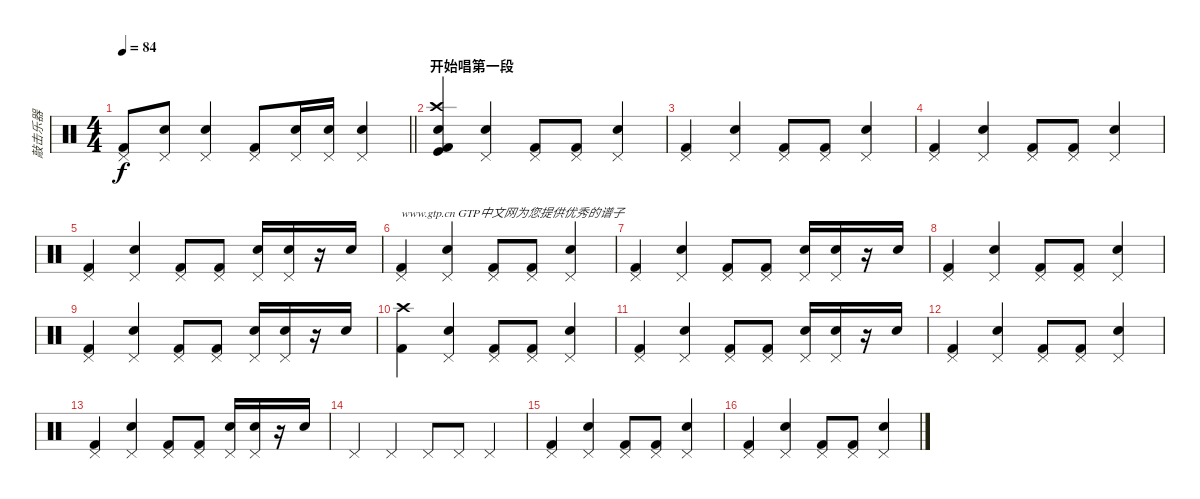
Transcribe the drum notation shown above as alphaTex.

\track ("敲击乐器" "敲击乐器") {instrument percussion}
\staff {score}
\articulation defaults
\ts (4 4)
\tempo 84
\clef neutral
\barLineRight lightlight
\ks c
("Kick (hit) 2" "Pedal Hi-Hat (hit)").8{dy f} ("Snare (hit) 2" "Pedal Hi-Hat (hit)").8 ("Snare (hit) 2" "Pedal Hi-Hat (hit)").4 ("Kick (hit) 2" "Pedal Hi-Hat (hit)").8 ("Snare (hit) 2" "Pedal Hi-Hat (hit)").16 ("Snare (hit) 2" "Pedal Hi-Hat (hit)").16 ("Snare (hit) 2" "Pedal Hi-Hat (hit)").4 |
\section ("" "开始唱第一段")
("Kick (hit) 2" "Crash high (hit)" "Kick (hit)" "Metronome (bell)").4 ("Snare (hit) 2" "Pedal Hi-Hat (hit)").4 ("Kick (hit) 2" "Pedal Hi-Hat (hit)").8 ("Kick (hit) 2" "Pedal Hi-Hat (hit)").8 ("Snare (hit) 2" "Pedal Hi-Hat (hit)").4 |
("Kick (hit) 2" "Pedal Hi-Hat (hit)").4 ("Snare (hit) 2" "Pedal Hi-Hat (hit)").4 ("Kick (hit) 2" "Pedal Hi-Hat (hit)").8 ("Kick (hit) 2" "Pedal Hi-Hat (hit)").8 ("Snare (hit) 2" "Pedal Hi-Hat (hit)").4 |
("Kick (hit) 2" "Pedal Hi-Hat (hit)").4 ("Snare (hit) 2" "Pedal Hi-Hat (hit)").4 ("Kick (hit) 2" "Pedal Hi-Hat (hit)").8 ("Kick (hit) 2" "Pedal Hi-Hat (hit)").8 ("Snare (hit) 2" "Pedal Hi-Hat (hit)").4 |
("Kick (hit) 2" "Pedal Hi-Hat (hit)").4 ("Snare (hit) 2" "Pedal Hi-Hat (hit)").4 ("Kick (hit) 2" "Pedal Hi-Hat (hit)").8 ("Kick (hit) 2" "Pedal Hi-Hat (hit)").8 ("Snare (hit) 2" "Pedal Hi-Hat (hit)").16 ("Snare (hit) 2" "Pedal Hi-Hat (hit)").16 r.16 "Snare (hit) 2".16 |
("Kick (hit) 2" "Pedal Hi-Hat (hit)").4{txt "www.gtp.cn GTP中文网为您提供优秀的谱子"} ("Snare (hit) 2" "Pedal Hi-Hat (hit)").4 ("Kick (hit) 2" "Pedal Hi-Hat (hit)").8 ("Kick (hit) 2" "Pedal Hi-Hat (hit)").8 ("Snare (hit) 2" "Pedal Hi-Hat (hit)").4 |
("Kick (hit) 2" "Pedal Hi-Hat (hit)").4 ("Snare (hit) 2" "Pedal Hi-Hat (hit)").4 ("Kick (hit) 2" "Pedal Hi-Hat (hit)").8 ("Kick (hit) 2" "Pedal Hi-Hat (hit)").8 ("Snare (hit) 2" "Pedal Hi-Hat (hit)").16 ("Snare (hit) 2" "Pedal Hi-Hat (hit)").16 r.16 "Snare (hit) 2".16 |
("Kick (hit) 2" "Pedal Hi-Hat (hit)").4 ("Snare (hit) 2" "Pedal Hi-Hat (hit)").4 ("Kick (hit) 2" "Pedal Hi-Hat (hit)").8 ("Kick (hit) 2" "Pedal Hi-Hat (hit)").8 ("Snare (hit) 2" "Pedal Hi-Hat (hit)").4 |
("Kick (hit) 2" "Pedal Hi-Hat (hit)").4 ("Snare (hit) 2" "Pedal Hi-Hat (hit)").4 ("Kick (hit) 2" "Pedal Hi-Hat (hit)").8 ("Kick (hit) 2" "Pedal Hi-Hat (hit)").8 ("Snare (hit) 2" "Pedal Hi-Hat (hit)").16 ("Snare (hit) 2" "Pedal Hi-Hat (hit)").16 r.16 "Snare (hit) 2".16 |
("Kick (hit) 2" "Crash high (hit)").4 ("Snare (hit) 2" "Pedal Hi-Hat (hit)").4 ("Kick (hit) 2" "Pedal Hi-Hat (hit)").8 ("Kick (hit) 2" "Pedal Hi-Hat (hit)").8 ("Snare (hit) 2" "Pedal Hi-Hat (hit)").4 |
("Kick (hit) 2" "Pedal Hi-Hat (hit)").4 ("Snare (hit) 2" "Pedal Hi-Hat (hit)").4 ("Kick (hit) 2" "Pedal Hi-Hat (hit)").8 ("Kick (hit) 2" "Pedal Hi-Hat (hit)").8 ("Snare (hit) 2" "Pedal Hi-Hat (hit)").16 ("Snare (hit) 2" "Pedal Hi-Hat (hit)").16 r.16 "Snare (hit) 2".16 |
("Kick (hit) 2" "Pedal Hi-Hat (hit)").4 ("Snare (hit) 2" "Pedal Hi-Hat (hit)").4 ("Kick (hit) 2" "Pedal Hi-Hat (hit)").8 ("Kick (hit) 2" "Pedal Hi-Hat (hit)").8 ("Snare (hit) 2" "Pedal Hi-Hat (hit)").4 |
("Kick (hit) 2" "Pedal Hi-Hat (hit)").4 ("Snare (hit) 2" "Pedal Hi-Hat (hit)").4 ("Kick (hit) 2" "Pedal Hi-Hat (hit)").8 ("Kick (hit) 2" "Pedal Hi-Hat (hit)").8 ("Snare (hit) 2" "Pedal Hi-Hat (hit)").16 ("Snare (hit) 2" "Pedal Hi-Hat (hit)").16 r.16 "Snare (hit) 2".16 |
"Pedal Hi-Hat (hit)".4 "Pedal Hi-Hat (hit)".4 "Pedal Hi-Hat (hit)".8 "Pedal Hi-Hat (hit)".8 "Pedal Hi-Hat (hit)".4 |
("Kick (hit) 2" "Pedal Hi-Hat (hit)").4 ("Snare (hit) 2" "Pedal Hi-Hat (hit)").4 ("Kick (hit) 2" "Pedal Hi-Hat (hit)").8 ("Kick (hit) 2" "Pedal Hi-Hat (hit)").8 ("Snare (hit) 2" "Pedal Hi-Hat (hit)").4 |
("Kick (hit) 2" "Pedal Hi-Hat (hit)").4 ("Snare (hit) 2" "Pedal Hi-Hat (hit)").4 ("Kick (hit) 2" "Pedal Hi-Hat (hit)").8 ("Kick (hit) 2" "Pedal Hi-Hat (hit)").8 ("Snare (hit) 2" "Pedal Hi-Hat (hit)").4
